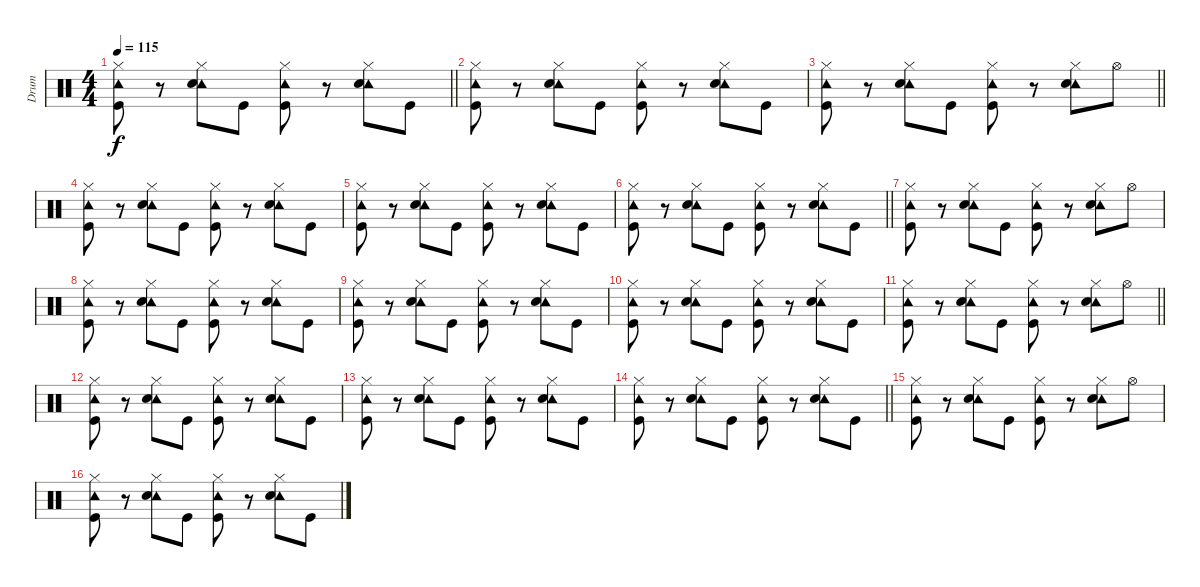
\track ("Drum" "Drum") {instrument percussion}
\staff {score}
\articulation defaults
\ts (4 4)
\tempo 115
\clef neutral
\barLineRight lightlight
\ks c
("Hi-Hat (closed)" "Tambourine (hit)" "Kick (hit)").8{dy f} r.8 ("Hi-Hat (closed)" "Tambourine (hit)" "Snare (hit) 2").8 "Kick (hit)".8 ("Hi-Hat (closed)" "Tambourine (hit)" "Kick (hit)").8 r.8 ("Hi-Hat (closed)" "Tambourine (hit)" "Snare (hit) 2").8 "Kick (hit)".8 |
("Hi-Hat (closed)" "Tambourine (hit)" "Kick (hit)").8 r.8 ("Hi-Hat (closed)" "Tambourine (hit)" "Snare (hit) 2").8 "Kick (hit)".8 ("Hi-Hat (closed)" "Tambourine (hit)" "Kick (hit)").8 r.8 ("Hi-Hat (closed)" "Tambourine (hit)" "Snare (hit) 2").8 "Kick (hit)".8 |
\barLineRight lightlight
("Hi-Hat (closed)" "Tambourine (hit)" "Kick (hit)").8 r.8 ("Hi-Hat (closed)" "Tambourine (hit)" "Snare (hit) 2").8 "Kick (hit)".8 ("Hi-Hat (closed)" "Tambourine (hit)" "Kick (hit)").8 r.8 ("Hi-Hat (closed)" "Tambourine (hit)" "Snare (hit) 2").8 "Hi-Hat (open)".8 |
("Hi-Hat (closed)" "Tambourine (hit)" "Kick (hit)").8 r.8 ("Hi-Hat (closed)" "Tambourine (hit)" "Snare (hit) 2").8 "Kick (hit)".8 ("Hi-Hat (closed)" "Tambourine (hit)" "Kick (hit)").8 r.8 ("Hi-Hat (closed)" "Tambourine (hit)" "Snare (hit) 2").8 "Kick (hit)".8 |
("Hi-Hat (closed)" "Tambourine (hit)" "Kick (hit)").8 r.8 ("Hi-Hat (closed)" "Tambourine (hit)" "Snare (hit) 2").8 "Kick (hit)".8 ("Hi-Hat (closed)" "Tambourine (hit)" "Kick (hit)").8 r.8 ("Hi-Hat (closed)" "Tambourine (hit)" "Snare (hit) 2").8 "Kick (hit)".8 |
\barLineRight lightlight
("Hi-Hat (closed)" "Tambourine (hit)" "Kick (hit)").8 r.8 ("Hi-Hat (closed)" "Tambourine (hit)" "Snare (hit) 2").8 "Kick (hit)".8 ("Hi-Hat (closed)" "Tambourine (hit)" "Kick (hit)").8 r.8 ("Hi-Hat (closed)" "Tambourine (hit)" "Snare (hit) 2").8 "Kick (hit)".8 |
("Hi-Hat (closed)" "Tambourine (hit)" "Kick (hit)").8 r.8 ("Hi-Hat (closed)" "Tambourine (hit)" "Snare (hit) 2").8 "Kick (hit)".8 ("Hi-Hat (closed)" "Tambourine (hit)" "Kick (hit)").8 r.8 ("Hi-Hat (closed)" "Tambourine (hit)" "Snare (hit) 2").8 "Hi-Hat (open)".8 |
("Hi-Hat (closed)" "Tambourine (hit)" "Kick (hit)").8 r.8 ("Hi-Hat (closed)" "Tambourine (hit)" "Snare (hit) 2").8 "Kick (hit)".8 ("Hi-Hat (closed)" "Tambourine (hit)" "Kick (hit)").8 r.8 ("Hi-Hat (closed)" "Tambourine (hit)" "Snare (hit) 2").8 "Kick (hit)".8 |
("Hi-Hat (closed)" "Tambourine (hit)" "Kick (hit)").8 r.8 ("Hi-Hat (closed)" "Tambourine (hit)" "Snare (hit) 2").8 "Kick (hit)".8 ("Hi-Hat (closed)" "Tambourine (hit)" "Kick (hit)").8 r.8 ("Hi-Hat (closed)" "Tambourine (hit)" "Snare (hit) 2").8 "Kick (hit)".8 |
("Hi-Hat (closed)" "Tambourine (hit)" "Kick (hit)").8 r.8 ("Hi-Hat (closed)" "Tambourine (hit)" "Snare (hit) 2").8 "Kick (hit)".8 ("Hi-Hat (closed)" "Tambourine (hit)" "Kick (hit)").8 r.8 ("Hi-Hat (closed)" "Tambourine (hit)" "Snare (hit) 2").8 "Kick (hit)".8 |
\barLineRight lightlight
("Hi-Hat (closed)" "Tambourine (hit)" "Kick (hit)").8 r.8 ("Hi-Hat (closed)" "Tambourine (hit)" "Snare (hit) 2").8 "Kick (hit)".8 ("Hi-Hat (closed)" "Tambourine (hit)" "Kick (hit)").8 r.8 ("Hi-Hat (closed)" "Tambourine (hit)" "Snare (hit) 2").8 "Hi-Hat (open)".8 |
("Hi-Hat (closed)" "Tambourine (hit)" "Kick (hit)").8 r.8 ("Hi-Hat (closed)" "Tambourine (hit)" "Snare (hit) 2").8 "Kick (hit)".8 ("Hi-Hat (closed)" "Tambourine (hit)" "Kick (hit)").8 r.8 ("Hi-Hat (closed)" "Tambourine (hit)" "Snare (hit) 2").8 "Kick (hit)".8 |
("Hi-Hat (closed)" "Tambourine (hit)" "Kick (hit)").8 r.8 ("Hi-Hat (closed)" "Tambourine (hit)" "Snare (hit) 2").8 "Kick (hit)".8 ("Hi-Hat (closed)" "Tambourine (hit)" "Kick (hit)").8 r.8 ("Hi-Hat (closed)" "Tambourine (hit)" "Snare (hit) 2").8 "Kick (hit)".8 |
\barLineRight lightlight
("Hi-Hat (closed)" "Tambourine (hit)" "Kick (hit)").8 r.8 ("Hi-Hat (closed)" "Tambourine (hit)" "Snare (hit) 2").8 "Kick (hit)".8 ("Hi-Hat (closed)" "Tambourine (hit)" "Kick (hit)").8 r.8 ("Hi-Hat (closed)" "Tambourine (hit)" "Snare (hit) 2").8 "Kick (hit)".8 |
("Hi-Hat (closed)" "Tambourine (hit)" "Kick (hit)").8{volume 0} r.8 ("Hi-Hat (closed)" "Tambourine (hit)" "Snare (hit) 2").8 "Kick (hit)".8 ("Hi-Hat (closed)" "Tambourine (hit)" "Kick (hit)").8 r.8 ("Hi-Hat (closed)" "Tambourine (hit)" "Snare (hit) 2").8 "Hi-Hat (open)".8 |
("Hi-Hat (closed)" "Tambourine (hit)" "Kick (hit)").8 r.8 ("Hi-Hat (closed)" "Tambourine (hit)" "Snare (hit) 2").8 "Kick (hit)".8 ("Hi-Hat (closed)" "Tambourine (hit)" "Kick (hit)").8 r.8 ("Hi-Hat (closed)" "Tambourine (hit)" "Snare (hit) 2").8 "Kick (hit)".8
